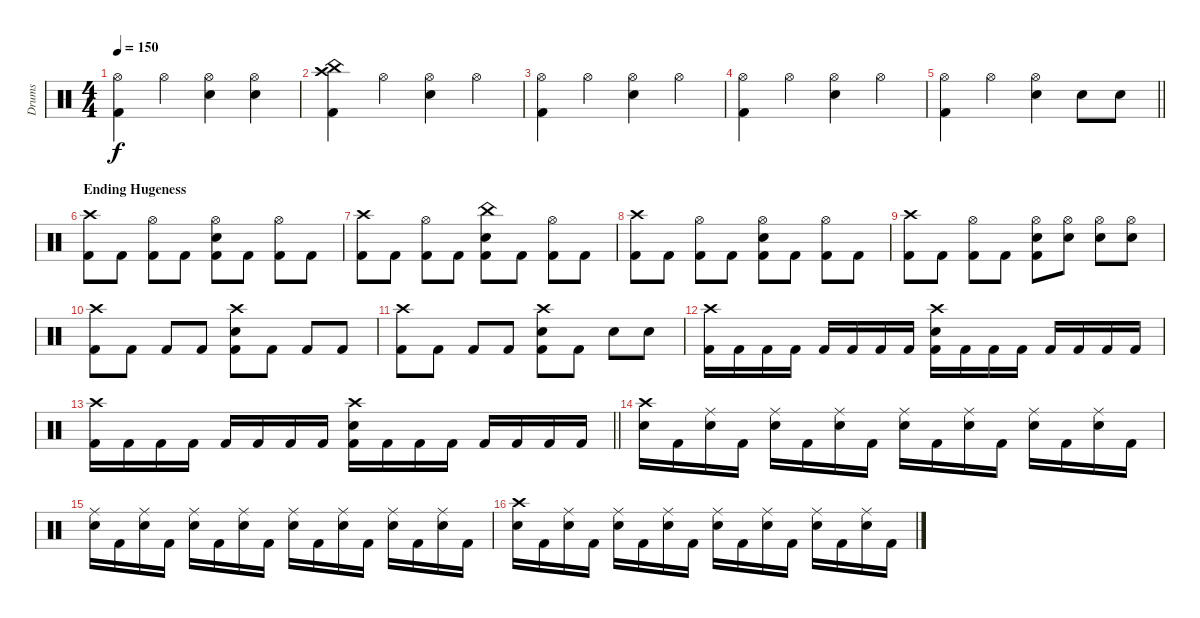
\track ("Drums" "Drums") {instrument percussion}
\staff {score}
\articulation defaults
\ts (4 4)
\tempo 150
\clef neutral
\ks c
("Hi-Hat (open)" "Kick (hit) 2").4{dy f} "Hi-Hat (open)".4 ("Hi-Hat (open)" "Snare (hit) 2").4 ("Hi-Hat (open)" "Snare (hit) 2").4 |
("Crash high (hit)" "China (hit)" "Kick (hit) 2").4 "Hi-Hat (open)".4 ("Hi-Hat (open)" "Snare (hit) 2").4 "Hi-Hat (open)".4 |
("Hi-Hat (open)" "Kick (hit) 2").4 "Hi-Hat (open)".4 ("Hi-Hat (open)" "Snare (hit) 2").4 "Hi-Hat (open)".4 |
("Hi-Hat (open)" "Kick (hit) 2").4 "Hi-Hat (open)".4 ("Hi-Hat (open)" "Snare (hit) 2").4 "Hi-Hat (open)".4 |
\barLineRight lightlight
("Hi-Hat (open)" "Kick (hit) 2").4 "Hi-Hat (open)".4 ("Hi-Hat (open)" "Snare (hit) 2").4 "Snare (hit) 2".8 "Snare (hit) 2".8 |
\section ("" "Ending Hugeness")
("Crash high (hit)" "Kick (hit) 2").8 "Kick (hit) 2".8 ("Hi-Hat (open)" "Kick (hit) 2").8 "Kick (hit) 2".8 ("Hi-Hat (open)" "Snare (hit) 2" "Kick (hit) 2").8 "Kick (hit) 2".8 ("Hi-Hat (open)" "Kick (hit) 2").8 "Kick (hit) 2".8 |
("Crash high (hit)" "Kick (hit) 2").8 "Kick (hit) 2".8 ("Hi-Hat (open)" "Kick (hit) 2").8 "Kick (hit) 2".8 ("China (hit)" "Snare (hit) 2" "Kick (hit) 2").8 "Kick (hit) 2".8 ("Hi-Hat (open)" "Kick (hit) 2").8 "Kick (hit) 2".8 |
("Crash high (hit)" "Kick (hit) 2").8 "Kick (hit) 2".8 ("Hi-Hat (open)" "Kick (hit) 2").8 "Kick (hit) 2".8 ("Hi-Hat (open)" "Snare (hit) 2" "Kick (hit) 2").8 "Kick (hit) 2".8 ("Hi-Hat (open)" "Kick (hit) 2").8 "Kick (hit) 2".8 |
("Crash high (hit)" "Kick (hit) 2").8 "Kick (hit) 2".8 ("Hi-Hat (open)" "Kick (hit) 2").8 "Kick (hit) 2".8 ("Hi-Hat (open)" "Snare (hit) 2" "Kick (hit) 2").8 ("Hi-Hat (open)" "Snare (hit) 2").8 ("Hi-Hat (open)" "Snare (hit) 2").8 ("Hi-Hat (open)" "Snare (hit) 2").8 |
("Crash high (hit)" "Kick (hit) 2").8 "Kick (hit) 2".8 "Kick (hit) 2".8 "Kick (hit) 2".8 ("Crash high (hit)" "Snare (hit) 2" "Kick (hit) 2").8 "Kick (hit) 2".8 "Kick (hit) 2".8 "Kick (hit) 2".8 |
("Crash high (hit)" "Kick (hit) 2").8 "Kick (hit) 2".8 "Kick (hit) 2".8 "Kick (hit) 2".8 ("Crash high (hit)" "Snare (hit) 2" "Kick (hit) 2").8 "Kick (hit) 2".8 "Snare (hit) 2".8 "Snare (hit) 2".8 |
("Crash high (hit)" "Kick (hit) 2").16 "Kick (hit) 2".16 "Kick (hit) 2".16 "Kick (hit) 2".16 "Kick (hit) 2".16 "Kick (hit) 2".16 "Kick (hit) 2".16 "Kick (hit) 2".16 ("Crash high (hit)" "Snare (hit) 2" "Kick (hit) 2").16 "Kick (hit) 2".16 "Kick (hit) 2".16 "Kick (hit) 2".16 "Kick (hit) 2".16 "Kick (hit) 2".16 "Kick (hit) 2".16 "Kick (hit) 2".16 |
\barLineRight lightlight
("Crash high (hit)" "Kick (hit) 2").16 "Kick (hit) 2".16 "Kick (hit) 2".16 "Kick (hit) 2".16 "Kick (hit) 2".16 "Kick (hit) 2".16 "Kick (hit) 2".16 "Kick (hit) 2".16 ("Crash high (hit)" "Snare (hit) 2" "Kick (hit) 2").16 "Kick (hit) 2".16 "Kick (hit) 2".16 "Kick (hit) 2".16 "Kick (hit) 2".16 "Kick (hit) 2".16 "Kick (hit) 2".16 "Kick (hit) 2".16 |
("Crash high (hit)" "Snare (hit) 2").16 "Kick (hit) 2".16 ("Ride (middle)" "Snare (hit) 2").16 "Kick (hit) 2".16 ("Ride (middle)" "Snare (hit) 2").16 "Kick (hit) 2".16 ("Ride (middle)" "Snare (hit) 2").16 "Kick (hit) 2".16 ("Ride (middle)" "Snare (hit) 2").16 "Kick (hit) 2".16 ("Ride (middle)" "Snare (hit) 2").16 "Kick (hit) 2".16 ("Ride (middle)" "Snare (hit) 2").16 "Kick (hit) 2".16 ("Ride (middle)" "Snare (hit) 2").16 "Kick (hit) 2".16 |
("Ride (middle)" "Snare (hit) 2").16 "Kick (hit) 2".16 ("Ride (middle)" "Snare (hit) 2").16 "Kick (hit) 2".16 ("Ride (middle)" "Snare (hit) 2").16 "Kick (hit) 2".16 ("Ride (middle)" "Snare (hit) 2").16 "Kick (hit) 2".16 ("Ride (middle)" "Snare (hit) 2").16 "Kick (hit) 2".16 ("Ride (middle)" "Snare (hit) 2").16 "Kick (hit) 2".16 ("Ride (middle)" "Snare (hit) 2").16 "Kick (hit) 2".16 ("Ride (middle)" "Snare (hit) 2").16 "Kick (hit) 2".16 |
("Crash high (hit)" "Snare (hit) 2").16 "Kick (hit) 2".16 ("Ride (middle)" "Snare (hit) 2").16 "Kick (hit) 2".16 ("Ride (middle)" "Snare (hit) 2").16 "Kick (hit) 2".16 ("Ride (middle)" "Snare (hit) 2").16 "Kick (hit) 2".16 ("Ride (middle)" "Snare (hit) 2").16 "Kick (hit) 2".16 ("Ride (middle)" "Snare (hit) 2").16 "Kick (hit) 2".16 ("Ride (middle)" "Snare (hit) 2").16 "Kick (hit) 2".16 ("Ride (middle)" "Snare (hit) 2").16 "Kick (hit) 2".16
